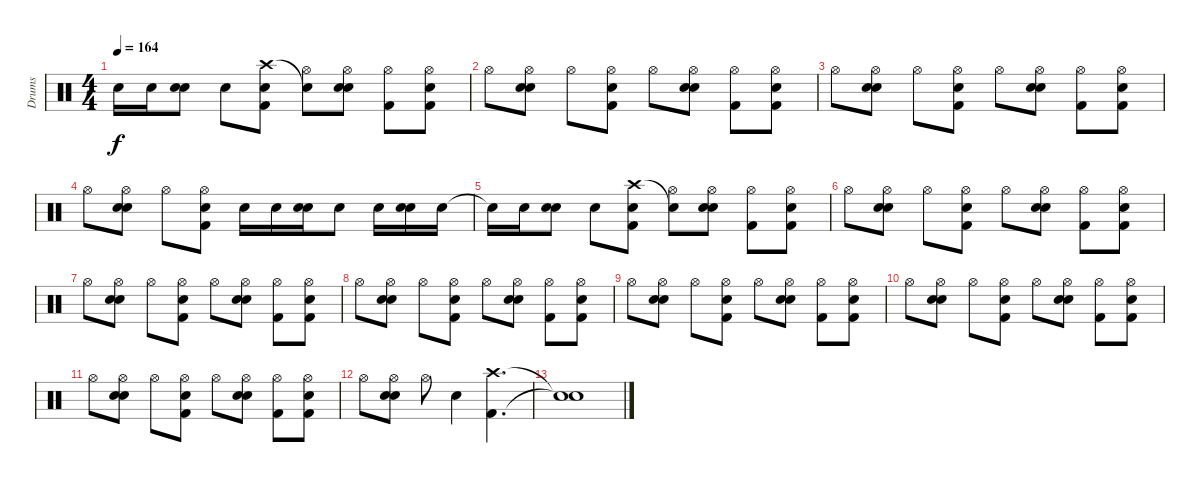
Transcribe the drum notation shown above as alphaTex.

\track ("Drums" "Drums") {instrument percussion}
\staff {score}
\articulation defaults
\ts (4 4)
\tempo 164
\clef neutral
\ks c "Snare (hit)"{t}.16{dy f} "Snare (hit) 2".16
("Snare (hit) 2" "Hand Clap (hit)").8 "Snare (hit) 2".8 ("Kick (hit) 2" "Crash high (hit)" "Hand Clap (hit)").8 ("Hi-Hat (open)" "Snare (hit)"{t}).8 ("Snare (hit) 2" "Hi-Hat (open)" "Hand Clap (hit)").8 ("Kick (hit) 2" "Hi-Hat (open)").8 ("Kick (hit) 2" "Hi-Hat (open)" "Hand Clap (hit)").8 |
"Hi-Hat (open)".8 ("Snare (hit) 2" "Hi-Hat (open)" "Hand Clap (hit)").8 "Hi-Hat (open)".8 ("Kick (hit) 2" "Hi-Hat (open)" "Hand Clap (hit)").8 "Hi-Hat (open)".8 ("Snare (hit) 2" "Hi-Hat (open)" "Hand Clap (hit)").8 ("Kick (hit) 2" "Hi-Hat (open)").8 ("Kick (hit) 2" "Hi-Hat (open)" "Hand Clap (hit)").8 |
"Hi-Hat (open)".8 ("Snare (hit) 2" "Hi-Hat (open)" "Hand Clap (hit)").8 "Hi-Hat (open)".8 ("Kick (hit) 2" "Hi-Hat (open)" "Hand Clap (hit)").8 "Hi-Hat (open)".8 ("Snare (hit) 2" "Hi-Hat (open)" "Hand Clap (hit)").8 ("Kick (hit) 2" "Hi-Hat (open)").8 ("Kick (hit) 2" "Hi-Hat (open)" "Hand Clap (hit)").8 |
"Hi-Hat (open)".8 ("Snare (hit) 2" "Hi-Hat (open)" "Hand Clap (hit)").8 "Hi-Hat (open)".8 ("Kick (hit) 2" "Hi-Hat (open)" "Hand Clap (hit)").8 "Snare (hit) 2".16 "Snare (hit) 2".16 ("Snare (hit) 2" "Hand Clap (hit)").16 "Snare (hit) 2".8 "Snare (hit) 2".16 ("Snare (hit) 2" "Hand Clap (hit)").16 "Snare (hit) 2".16 |
"Snare (hit)"{t}.16 "Snare (hit) 2".16 ("Snare (hit) 2" "Hand Clap (hit)").8 "Snare (hit) 2".8 ("Kick (hit) 2" "Crash high (hit)" "Hand Clap (hit)").8 ("Hi-Hat (open)" "Snare (hit)"{t}).8 ("Snare (hit) 2" "Hi-Hat (open)" "Hand Clap (hit)").8 ("Kick (hit) 2" "Hi-Hat (open)").8 ("Kick (hit) 2" "Hi-Hat (open)" "Hand Clap (hit)").8 |
"Hi-Hat (open)".8 ("Snare (hit) 2" "Hi-Hat (open)" "Hand Clap (hit)").8 "Hi-Hat (open)".8 ("Kick (hit) 2" "Hi-Hat (open)" "Hand Clap (hit)").8 "Hi-Hat (open)".8 ("Snare (hit) 2" "Hi-Hat (open)" "Hand Clap (hit)").8 ("Kick (hit) 2" "Hi-Hat (open)").8 ("Kick (hit) 2" "Hi-Hat (open)" "Hand Clap (hit)").8 |
"Hi-Hat (open)".8 ("Snare (hit) 2" "Hi-Hat (open)" "Hand Clap (hit)").8 "Hi-Hat (open)".8 ("Kick (hit) 2" "Hi-Hat (open)" "Hand Clap (hit)").8 "Hi-Hat (open)".8 ("Snare (hit) 2" "Hi-Hat (open)" "Hand Clap (hit)").8 ("Kick (hit) 2" "Hi-Hat (open)").8 ("Kick (hit) 2" "Hi-Hat (open)" "Hand Clap (hit)").8 |
"Hi-Hat (open)".8 ("Snare (hit) 2" "Hi-Hat (open)" "Hand Clap (hit)").8 "Hi-Hat (open)".8 ("Kick (hit) 2" "Hi-Hat (open)" "Hand Clap (hit)").8 "Hi-Hat (open)".8 ("Snare (hit) 2" "Hi-Hat (open)" "Hand Clap (hit)").8 ("Kick (hit) 2" "Hi-Hat (open)").8 ("Kick (hit) 2" "Hi-Hat (open)" "Hand Clap (hit)").8 |
"Hi-Hat (open)".8 ("Snare (hit) 2" "Hi-Hat (open)" "Hand Clap (hit)").8 "Hi-Hat (open)".8 ("Kick (hit) 2" "Hi-Hat (open)" "Hand Clap (hit)").8 "Hi-Hat (open)".8 ("Snare (hit) 2" "Hi-Hat (open)" "Hand Clap (hit)").8 ("Kick (hit) 2" "Hi-Hat (open)").8 ("Kick (hit) 2" "Hi-Hat (open)" "Hand Clap (hit)").8 |
"Hi-Hat (open)".8 ("Snare (hit) 2" "Hi-Hat (open)" "Hand Clap (hit)").8 "Hi-Hat (open)".8 ("Kick (hit) 2" "Hi-Hat (open)" "Hand Clap (hit)").8 "Hi-Hat (open)".8 ("Snare (hit) 2" "Hi-Hat (open)" "Hand Clap (hit)").8 ("Kick (hit) 2" "Hi-Hat (open)").8 ("Kick (hit) 2" "Hi-Hat (open)" "Hand Clap (hit)").8 |
"Hi-Hat (open)".8 ("Snare (hit) 2" "Hi-Hat (open)" "Hand Clap (hit)").8 "Hi-Hat (open)".8 ("Kick (hit) 2" "Hi-Hat (open)" "Hand Clap (hit)").8 "Hi-Hat (open)".8 ("Snare (hit) 2" "Hi-Hat (open)" "Hand Clap (hit)").8 ("Kick (hit) 2" "Hi-Hat (open)").8 ("Kick (hit) 2" "Hi-Hat (open)" "Hand Clap (hit)").8 |
"Hi-Hat (open)".8 ("Snare (hit) 2" "Hi-Hat (open)" "Hand Clap (hit)").8 "Hi-Hat (open)".8 "Hand Clap (hit)".4 ("Kick (hit) 2" "Crash high (hit)").4{d} |
("Snare (hit)"{t} "Snare (hit)"{t}).1
